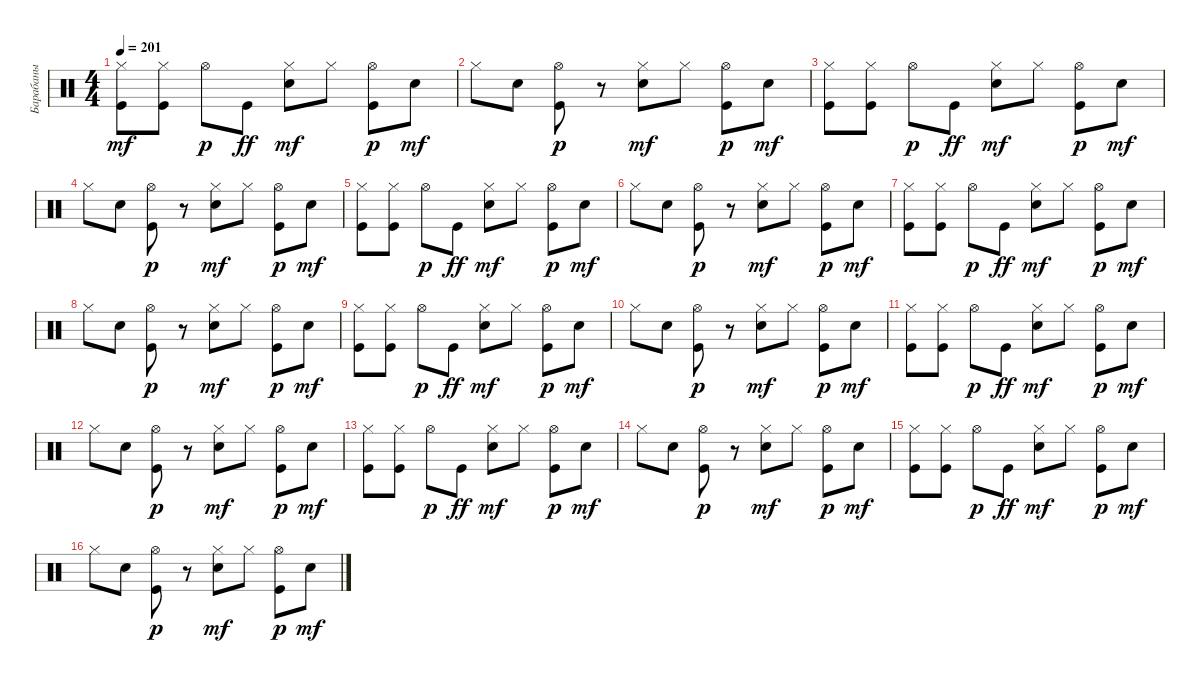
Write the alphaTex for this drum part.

\track ("Барабаны" "Барабаны") {instrument percussion}
\staff {score}
\articulation defaults
\ts (4 4)
\tempo 201
\clef neutral
\ks c
("Kick (hit)" "Hi-Hat (closed)").8{dy mf} ("Kick (hit)" "Hi-Hat (closed)").8 "Hi-Hat (open)".8{dy p} "Kick (hit)".8{dy ff} ("Snare (hit) 2" "Hi-Hat (closed)").8{dy mf} "Hi-Hat (closed)".8 ("Kick (hit)" "Hi-Hat (open)").8{dy p} "Snare (hit) 2".8{dy mf} |
"Hi-Hat (closed)".8 "Snare (hit) 2".8 ("Kick (hit)" "Hi-Hat (open)").8{dy p} r.8 ("Snare (hit) 2" "Hi-Hat (closed)").8{dy mf} "Hi-Hat (closed)".8 ("Kick (hit)" "Hi-Hat (open)").8{dy p} "Snare (hit) 2".8{dy mf} |
("Kick (hit)" "Hi-Hat (closed)").8 ("Kick (hit)" "Hi-Hat (closed)").8 "Hi-Hat (open)".8{dy p} "Kick (hit)".8{dy ff} ("Snare (hit) 2" "Hi-Hat (closed)").8{dy mf} "Hi-Hat (closed)".8 ("Kick (hit)" "Hi-Hat (open)").8{dy p} "Snare (hit) 2".8{dy mf} |
"Hi-Hat (closed)".8 "Snare (hit) 2".8 ("Kick (hit)" "Hi-Hat (open)").8{dy p} r.8 ("Snare (hit) 2" "Hi-Hat (closed)").8{dy mf} "Hi-Hat (closed)".8 ("Kick (hit)" "Hi-Hat (open)").8{dy p} "Snare (hit) 2".8{dy mf} |
("Kick (hit)" "Hi-Hat (closed)").8 ("Kick (hit)" "Hi-Hat (closed)").8 "Hi-Hat (open)".8{dy p} "Kick (hit)".8{dy ff} ("Snare (hit) 2" "Hi-Hat (closed)").8{dy mf} "Hi-Hat (closed)".8 ("Kick (hit)" "Hi-Hat (open)").8{dy p} "Snare (hit) 2".8{dy mf} |
"Hi-Hat (closed)".8 "Snare (hit) 2".8 ("Kick (hit)" "Hi-Hat (open)").8{dy p} r.8 ("Snare (hit) 2" "Hi-Hat (closed)").8{dy mf} "Hi-Hat (closed)".8 ("Kick (hit)" "Hi-Hat (open)").8{dy p} "Snare (hit) 2".8{dy mf} |
("Kick (hit)" "Hi-Hat (closed)").8 ("Kick (hit)" "Hi-Hat (closed)").8 "Hi-Hat (open)".8{dy p} "Kick (hit)".8{dy ff} ("Snare (hit) 2" "Hi-Hat (closed)").8{dy mf} "Hi-Hat (closed)".8 ("Kick (hit)" "Hi-Hat (open)").8{dy p} "Snare (hit) 2".8{dy mf} |
"Hi-Hat (closed)".8 "Snare (hit) 2".8 ("Kick (hit)" "Hi-Hat (open)").8{dy p} r.8 ("Snare (hit) 2" "Hi-Hat (closed)").8{dy mf} "Hi-Hat (closed)".8 ("Kick (hit)" "Hi-Hat (open)").8{dy p} "Snare (hit) 2".8{dy mf} |
("Kick (hit)" "Hi-Hat (closed)").8 ("Kick (hit)" "Hi-Hat (closed)").8 "Hi-Hat (open)".8{dy p} "Kick (hit)".8{dy ff} ("Snare (hit) 2" "Hi-Hat (closed)").8{dy mf} "Hi-Hat (closed)".8 ("Kick (hit)" "Hi-Hat (open)").8{dy p} "Snare (hit) 2".8{dy mf} |
"Hi-Hat (closed)".8 "Snare (hit) 2".8 ("Kick (hit)" "Hi-Hat (open)").8{dy p} r.8 ("Snare (hit) 2" "Hi-Hat (closed)").8{dy mf} "Hi-Hat (closed)".8 ("Kick (hit)" "Hi-Hat (open)").8{dy p} "Snare (hit) 2".8{dy mf} |
("Kick (hit)" "Hi-Hat (closed)").8 ("Kick (hit)" "Hi-Hat (closed)").8 "Hi-Hat (open)".8{dy p} "Kick (hit)".8{dy ff} ("Snare (hit) 2" "Hi-Hat (closed)").8{dy mf} "Hi-Hat (closed)".8 ("Kick (hit)" "Hi-Hat (open)").8{dy p} "Snare (hit) 2".8{dy mf} |
"Hi-Hat (closed)".8 "Snare (hit) 2".8 ("Kick (hit)" "Hi-Hat (open)").8{dy p} r.8 ("Snare (hit) 2" "Hi-Hat (closed)").8{dy mf} "Hi-Hat (closed)".8 ("Kick (hit)" "Hi-Hat (open)").8{dy p} "Snare (hit) 2".8{dy mf} |
("Kick (hit)" "Hi-Hat (closed)").8 ("Kick (hit)" "Hi-Hat (closed)").8 "Hi-Hat (open)".8{dy p} "Kick (hit)".8{dy ff} ("Snare (hit) 2" "Hi-Hat (closed)").8{dy mf} "Hi-Hat (closed)".8 ("Kick (hit)" "Hi-Hat (open)").8{dy p} "Snare (hit) 2".8{dy mf} |
"Hi-Hat (closed)".8 "Snare (hit) 2".8 ("Kick (hit)" "Hi-Hat (open)").8{dy p} r.8 ("Snare (hit) 2" "Hi-Hat (closed)").8{dy mf} "Hi-Hat (closed)".8 ("Kick (hit)" "Hi-Hat (open)").8{dy p} "Snare (hit) 2".8{dy mf} |
("Kick (hit)" "Hi-Hat (closed)").8 ("Kick (hit)" "Hi-Hat (closed)").8 "Hi-Hat (open)".8{dy p} "Kick (hit)".8{dy ff} ("Snare (hit) 2" "Hi-Hat (closed)").8{dy mf} "Hi-Hat (closed)".8 ("Kick (hit)" "Hi-Hat (open)").8{dy p} "Snare (hit) 2".8{dy mf} |
"Hi-Hat (closed)".8 "Snare (hit) 2".8 ("Kick (hit)" "Hi-Hat (open)").8{dy p} r.8 ("Snare (hit) 2" "Hi-Hat (closed)").8{dy mf} "Hi-Hat (closed)".8 ("Kick (hit)" "Hi-Hat (open)").8{dy p} "Snare (hit) 2".8{dy mf}
